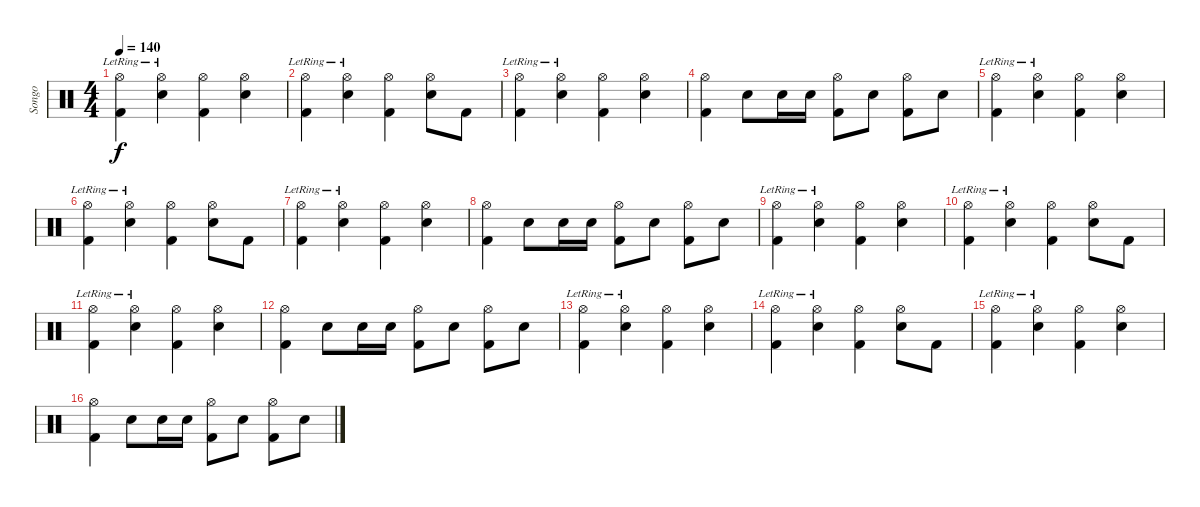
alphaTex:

\track ("Songo" "Songo") {instrument percussion}
\staff {score}
\articulation defaults
\ts (4 4)
\tempo 140
\clef neutral
\ks c
("Hi-Hat (open)"{lr} "Kick (hit) 2").4{dy f} ("Hi-Hat (open)"{lr} "Electric Snare (hit)").4 ("Hi-Hat (open)" "Kick (hit) 2").4 ("Hi-Hat (open)" "Electric Snare (hit)").4 |
("Hi-Hat (open)"{lr} "Kick (hit) 2").4 ("Hi-Hat (open)"{lr} "Electric Snare (hit)").4 ("Hi-Hat (open)" "Kick (hit) 2").4 ("Hi-Hat (open)" "Electric Snare (hit)").8 "Kick (hit) 2".8 |
("Hi-Hat (open)"{lr} "Kick (hit) 2").4 ("Hi-Hat (open)"{lr} "Electric Snare (hit)").4 ("Hi-Hat (open)" "Kick (hit) 2").4 ("Hi-Hat (open)" "Electric Snare (hit)").4 |
("Hi-Hat (open)" "Kick (hit) 2").4 "Electric Snare (hit)".8 "Electric Snare (hit)".16 "Electric Snare (hit)".16 ("Hi-Hat (open)" "Kick (hit) 2").8 "Electric Snare (hit)".8 ("Hi-Hat (open)" "Kick (hit) 2").8 "Electric Snare (hit)".8 |
("Hi-Hat (open)"{lr} "Kick (hit) 2").4 ("Hi-Hat (open)"{lr} "Electric Snare (hit)").4 ("Hi-Hat (open)" "Kick (hit) 2").4 ("Hi-Hat (open)" "Electric Snare (hit)").4 |
("Hi-Hat (open)"{lr} "Kick (hit) 2").4 ("Hi-Hat (open)"{lr} "Electric Snare (hit)").4 ("Hi-Hat (open)" "Kick (hit) 2").4 ("Hi-Hat (open)" "Electric Snare (hit)").8 "Kick (hit) 2".8 |
("Hi-Hat (open)"{lr} "Kick (hit) 2").4 ("Hi-Hat (open)"{lr} "Electric Snare (hit)").4 ("Hi-Hat (open)" "Kick (hit) 2").4 ("Hi-Hat (open)" "Electric Snare (hit)").4 |
("Hi-Hat (open)" "Kick (hit) 2").4 "Electric Snare (hit)".8 "Electric Snare (hit)".16 "Electric Snare (hit)".16 ("Hi-Hat (open)" "Kick (hit) 2").8 "Electric Snare (hit)".8 ("Hi-Hat (open)" "Kick (hit) 2").8 "Electric Snare (hit)".8 |
("Hi-Hat (open)"{lr} "Kick (hit) 2").4 ("Hi-Hat (open)"{lr} "Electric Snare (hit)").4 ("Hi-Hat (open)" "Kick (hit) 2").4 ("Hi-Hat (open)" "Electric Snare (hit)").4 |
("Hi-Hat (open)"{lr} "Kick (hit) 2").4 ("Hi-Hat (open)"{lr} "Electric Snare (hit)").4 ("Hi-Hat (open)" "Kick (hit) 2").4 ("Hi-Hat (open)" "Electric Snare (hit)").8 "Kick (hit) 2".8 |
("Hi-Hat (open)"{lr} "Kick (hit) 2").4 ("Hi-Hat (open)"{lr} "Electric Snare (hit)").4 ("Hi-Hat (open)" "Kick (hit) 2").4 ("Hi-Hat (open)" "Electric Snare (hit)").4 |
("Hi-Hat (open)" "Kick (hit) 2").4 "Electric Snare (hit)".8 "Electric Snare (hit)".16 "Electric Snare (hit)".16 ("Hi-Hat (open)" "Kick (hit) 2").8 "Electric Snare (hit)".8 ("Hi-Hat (open)" "Kick (hit) 2").8 "Electric Snare (hit)".8 |
("Hi-Hat (open)"{lr} "Kick (hit) 2").4 ("Hi-Hat (open)"{lr} "Electric Snare (hit)").4 ("Hi-Hat (open)" "Kick (hit) 2").4 ("Hi-Hat (open)" "Electric Snare (hit)").4 |
("Hi-Hat (open)"{lr} "Kick (hit) 2").4 ("Hi-Hat (open)"{lr} "Electric Snare (hit)").4 ("Hi-Hat (open)" "Kick (hit) 2").4 ("Hi-Hat (open)" "Electric Snare (hit)").8 "Kick (hit) 2".8 |
("Hi-Hat (open)"{lr} "Kick (hit) 2").4 ("Hi-Hat (open)"{lr} "Electric Snare (hit)").4 ("Hi-Hat (open)" "Kick (hit) 2").4 ("Hi-Hat (open)" "Electric Snare (hit)").4 |
("Hi-Hat (open)" "Kick (hit) 2").4 "Electric Snare (hit)".8 "Electric Snare (hit)".16 "Electric Snare (hit)".16 ("Hi-Hat (open)" "Kick (hit) 2").8 "Electric Snare (hit)".8 ("Hi-Hat (open)" "Kick (hit) 2").8 "Electric Snare (hit)".8
